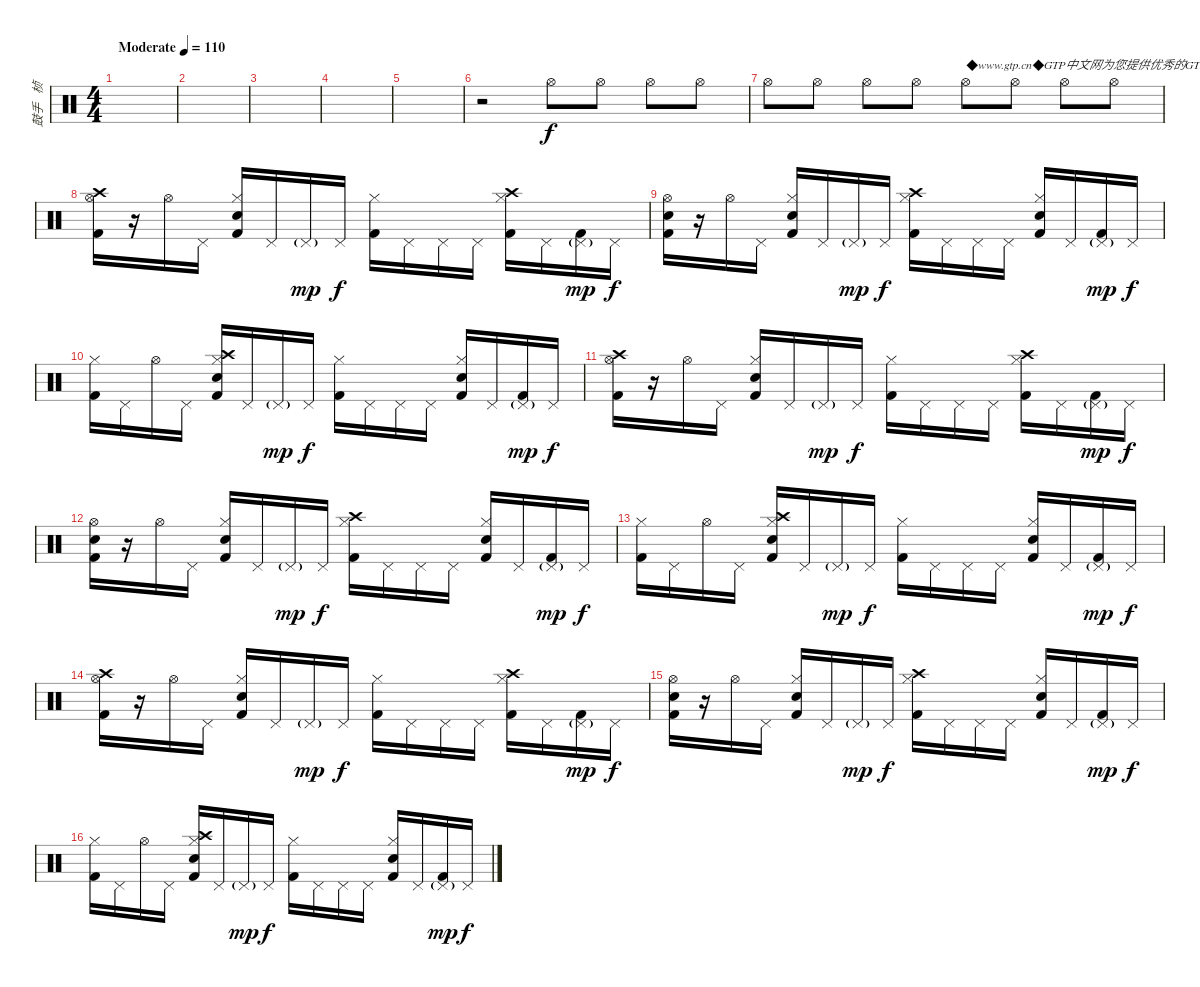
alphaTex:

\track ("鼓手   桢" "鼓手   桢") {instrument percussion bank 1}
\staff {score}
\articulation defaults
\ts (4 4)
\tempo (110 "Moderate")
\clef neutral
\ks c
|
|
|
|
|
r.2 "Hi-Hat (open)".8 "Hi-Hat (open)".8 "Hi-Hat (open)".8 "Hi-Hat (open)".8 |
"Hi-Hat (open)".8 "Hi-Hat (open)".8 "Hi-Hat (open)".8 "Hi-Hat (open)".8 "Hi-Hat (open)".8{txt "◆www.gtp.cn◆GTP中文网为您提供优秀的GTP！"} "Hi-Hat (open)".8 "Hi-Hat (open)".8 "Hi-Hat (open)".8 |
("Hi-Hat (open)" "Kick (hit) 2" "Crash high (hit)").16 r.16 "Hi-Hat (open)".16 "Pedal Hi-Hat (hit)".16 ("Hi-Hat (closed)" "Snare (hit) 2" "Kick (hit) 2").16 "Pedal Hi-Hat (hit)".16 "Pedal Hi-Hat (hit)"{g}.16{dy mp} "Pedal Hi-Hat (hit)".16{dy f} ("Hi-Hat (closed)" "Kick (hit) 2").16 "Pedal Hi-Hat (hit)".16 "Pedal Hi-Hat (hit)".16 "Pedal Hi-Hat (hit)".16 ("Hi-Hat (closed)" "Kick (hit) 2" "Crash high (hit)").16 "Pedal Hi-Hat (hit)".16 ("Pedal Hi-Hat (hit)"{g} "Kick (hit) 2").16{dy mp} "Pedal Hi-Hat (hit)".16{dy f} |
("Hi-Hat (open)" "Snare (hit) 2" "Kick (hit) 2").16 r.16 "Hi-Hat (open)".16 "Pedal Hi-Hat (hit)".16 ("Hi-Hat (closed)" "Snare (hit) 2" "Kick (hit) 2").16 "Pedal Hi-Hat (hit)".16 "Pedal Hi-Hat (hit)"{g}.16{dy mp} "Pedal Hi-Hat (hit)".16{dy f} ("Hi-Hat (closed)" "Kick (hit) 2" "Crash high (hit)").16 "Pedal Hi-Hat (hit)".16 "Pedal Hi-Hat (hit)".16 "Pedal Hi-Hat (hit)".16 ("Hi-Hat (closed)" "Snare (hit) 2" "Kick (hit) 2").16 "Pedal Hi-Hat (hit)".16 ("Pedal Hi-Hat (hit)"{g} "Kick (hit) 2").16{dy mp} "Pedal Hi-Hat (hit)".16{dy f} |
("Hi-Hat (closed)" "Kick (hit) 2").16 "Pedal Hi-Hat (hit)".16 "Hi-Hat (open)".16 "Pedal Hi-Hat (hit)".16 ("Hi-Hat (closed)" "Snare (hit) 2" "Kick (hit) 2" "Crash high (hit)").16 "Pedal Hi-Hat (hit)".16 "Pedal Hi-Hat (hit)"{g}.16{dy mp} "Pedal Hi-Hat (hit)".16{dy f} ("Hi-Hat (closed)" "Kick (hit) 2").16 "Pedal Hi-Hat (hit)".16 "Pedal Hi-Hat (hit)".16 "Pedal Hi-Hat (hit)".16 ("Hi-Hat (closed)" "Snare (hit) 2" "Kick (hit) 2").16 "Pedal Hi-Hat (hit)".16 ("Pedal Hi-Hat (hit)"{g} "Kick (hit) 2").16{dy mp} "Pedal Hi-Hat (hit)".16{dy f} |
("Hi-Hat (open)" "Kick (hit) 2" "Crash high (hit)").16 r.16 "Hi-Hat (open)".16 "Pedal Hi-Hat (hit)".16 ("Hi-Hat (closed)" "Snare (hit) 2" "Kick (hit) 2").16 "Pedal Hi-Hat (hit)".16 "Pedal Hi-Hat (hit)"{g}.16{dy mp} "Pedal Hi-Hat (hit)".16{dy f} ("Hi-Hat (closed)" "Kick (hit) 2").16 "Pedal Hi-Hat (hit)".16 "Pedal Hi-Hat (hit)".16 "Pedal Hi-Hat (hit)".16 ("Hi-Hat (closed)" "Kick (hit) 2" "Crash high (hit)").16 "Pedal Hi-Hat (hit)".16 ("Pedal Hi-Hat (hit)"{g} "Kick (hit) 2").16{dy mp} "Pedal Hi-Hat (hit)".16{dy f} |
("Hi-Hat (open)" "Snare (hit) 2" "Kick (hit) 2").16 r.16 "Hi-Hat (open)".16 "Pedal Hi-Hat (hit)".16 ("Hi-Hat (closed)" "Snare (hit) 2" "Kick (hit) 2").16 "Pedal Hi-Hat (hit)".16 "Pedal Hi-Hat (hit)"{g}.16{dy mp} "Pedal Hi-Hat (hit)".16{dy f} ("Hi-Hat (closed)" "Kick (hit) 2" "Crash high (hit)").16 "Pedal Hi-Hat (hit)".16 "Pedal Hi-Hat (hit)".16 "Pedal Hi-Hat (hit)".16 ("Hi-Hat (closed)" "Snare (hit) 2" "Kick (hit) 2").16 "Pedal Hi-Hat (hit)".16 ("Pedal Hi-Hat (hit)"{g} "Kick (hit) 2").16{dy mp} "Pedal Hi-Hat (hit)".16{dy f} |
("Hi-Hat (closed)" "Kick (hit) 2").16 "Pedal Hi-Hat (hit)".16 "Hi-Hat (open)".16 "Pedal Hi-Hat (hit)".16 ("Hi-Hat (closed)" "Snare (hit) 2" "Kick (hit) 2" "Crash high (hit)").16 "Pedal Hi-Hat (hit)".16 "Pedal Hi-Hat (hit)"{g}.16{dy mp} "Pedal Hi-Hat (hit)".16{dy f} ("Hi-Hat (closed)" "Kick (hit) 2").16 "Pedal Hi-Hat (hit)".16 "Pedal Hi-Hat (hit)".16 "Pedal Hi-Hat (hit)".16 ("Hi-Hat (closed)" "Snare (hit) 2" "Kick (hit) 2").16 "Pedal Hi-Hat (hit)".16 ("Pedal Hi-Hat (hit)"{g} "Kick (hit) 2").16{dy mp} "Pedal Hi-Hat (hit)".16{dy f} |
("Hi-Hat (open)" "Kick (hit) 2" "Crash high (hit)").16 r.16 "Hi-Hat (open)".16 "Pedal Hi-Hat (hit)".16 ("Hi-Hat (closed)" "Snare (hit) 2" "Kick (hit) 2").16 "Pedal Hi-Hat (hit)".16 "Pedal Hi-Hat (hit)"{g}.16{dy mp} "Pedal Hi-Hat (hit)".16{dy f} ("Hi-Hat (closed)" "Kick (hit) 2").16 "Pedal Hi-Hat (hit)".16 "Pedal Hi-Hat (hit)".16 "Pedal Hi-Hat (hit)".16 ("Hi-Hat (closed)" "Kick (hit) 2" "Crash high (hit)").16 "Pedal Hi-Hat (hit)".16 ("Pedal Hi-Hat (hit)"{g} "Kick (hit) 2").16{dy mp} "Pedal Hi-Hat (hit)".16{dy f} |
("Hi-Hat (open)" "Snare (hit) 2" "Kick (hit) 2").16 r.16 "Hi-Hat (open)".16 "Pedal Hi-Hat (hit)".16 ("Hi-Hat (closed)" "Snare (hit) 2" "Kick (hit) 2").16 "Pedal Hi-Hat (hit)".16 "Pedal Hi-Hat (hit)"{g}.16{dy mp} "Pedal Hi-Hat (hit)".16{dy f} ("Hi-Hat (closed)" "Kick (hit) 2" "Crash high (hit)").16 "Pedal Hi-Hat (hit)".16 "Pedal Hi-Hat (hit)".16 "Pedal Hi-Hat (hit)".16 ("Hi-Hat (closed)" "Snare (hit) 2" "Kick (hit) 2").16 "Pedal Hi-Hat (hit)".16 ("Pedal Hi-Hat (hit)"{g} "Kick (hit) 2").16{dy mp} "Pedal Hi-Hat (hit)".16{dy f} |
("Hi-Hat (closed)" "Kick (hit) 2").16 "Pedal Hi-Hat (hit)".16 "Hi-Hat (open)".16 "Pedal Hi-Hat (hit)".16 ("Hi-Hat (closed)" "Snare (hit) 2" "Kick (hit) 2" "Crash high (hit)").16 "Pedal Hi-Hat (hit)".16 "Pedal Hi-Hat (hit)"{g}.16{dy mp} "Pedal Hi-Hat (hit)".16{dy f} ("Hi-Hat (closed)" "Kick (hit) 2").16 "Pedal Hi-Hat (hit)".16 "Pedal Hi-Hat (hit)".16 "Pedal Hi-Hat (hit)".16 ("Hi-Hat (closed)" "Snare (hit) 2" "Kick (hit) 2").16 "Pedal Hi-Hat (hit)".16 ("Pedal Hi-Hat (hit)"{g} "Kick (hit) 2").16{dy mp} "Pedal Hi-Hat (hit)".16{dy f}
